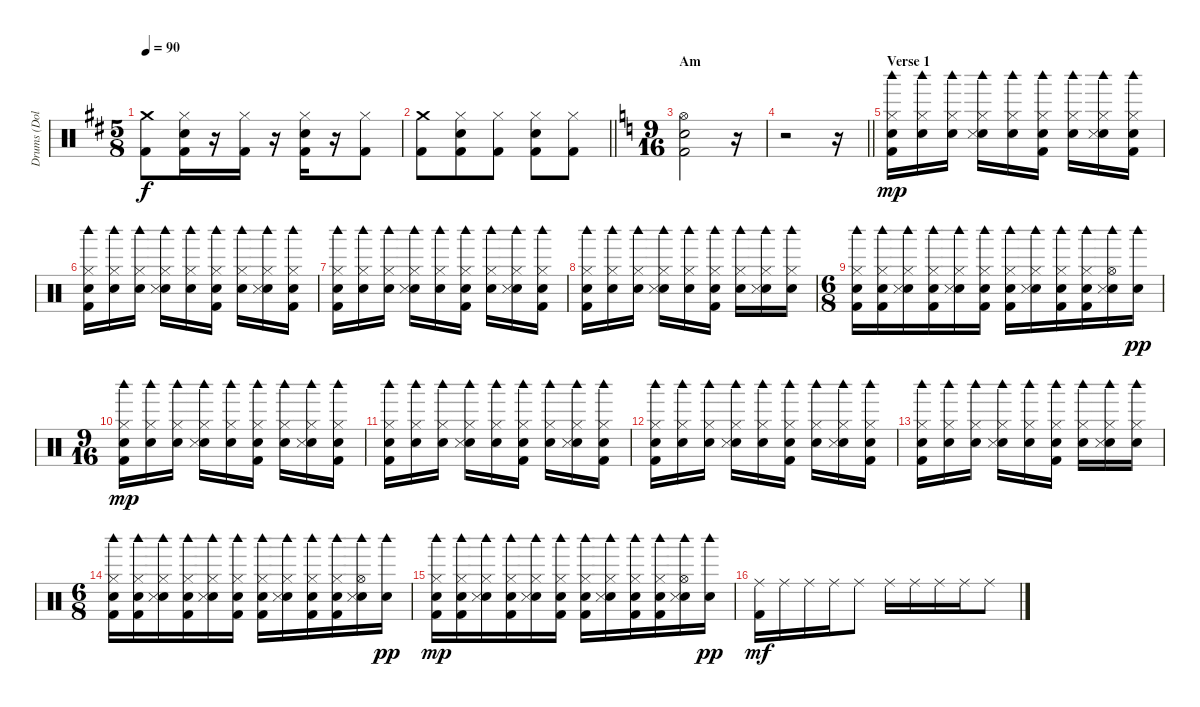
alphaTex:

\track ("Drums (Dolmayan)" "Drums (Dol") {instrument percussion}
\staff {score}
\articulation defaults
\ts (5 8)
\tempo 90
\clef neutral
\ks bminor
("Crash medium (hit)" "Kick (hit) 2").8{dy f} ("Hi-Hat (closed)" "Electric Snare (hit)" "Kick (hit) 2").16 r.16 ("Hi-Hat (closed)" "Kick (hit) 2").16 r.16 ("Hi-Hat (closed)" "Electric Snare (hit)" "Kick (hit) 2").16 r.16 ("Hi-Hat (closed)" "Kick (hit) 2").8 |
\barLineRight lightlight
("Crash medium (hit)" "Kick (hit) 2").8 ("Hi-Hat (closed)" "Electric Snare (hit)" "Kick (hit) 2").8 ("Hi-Hat (closed)" "Kick (hit) 2").8 ("Hi-Hat (closed)" "Electric Snare (hit)" "Kick (hit) 2").8 ("Hi-Hat (closed)" "Kick (hit) 2").8 |
\ts (9 16)
\section ("" "Am")
\ks aminor
("Hi-Hat (open)" "Electric Snare (hit)" "Kick (hit) 2").2 r.16 |
\barLineRight lightlight
r.2 r.16 |
\section ("" "Verse 1")
("Woodblock high (hit)" "Hand Clap (hit)" "Hi-Hat (closed)" "Kick (hit) 2").16{dy mp} ("Woodblock high (hit)" "Hand Clap (hit)" "Hi-Hat (closed)").16 ("Woodblock high (hit)" "Hand Clap (hit)" "Hi-Hat (closed)").16 ("Woodblock high (hit)" "Hand Clap (hit)" "Hi-Hat (closed)" "Snare (side stick) 3").16 ("Woodblock high (hit)" "Hand Clap (hit)" "Hi-Hat (closed)").16 ("Woodblock high (hit)" "Hand Clap (hit)" "Hi-Hat (closed)" "Kick (hit) 2").16 ("Woodblock high (hit)" "Hand Clap (hit)" "Hi-Hat (closed)").16 ("Woodblock high (hit)" "Hand Clap (hit)" "Hi-Hat (closed)" "Snare (side stick) 3").16 ("Woodblock high (hit)" "Hand Clap (hit)" "Hi-Hat (closed)" "Kick (hit) 2").16 |
("Woodblock high (hit)" "Hand Clap (hit)" "Hi-Hat (closed)" "Kick (hit) 2").16 ("Woodblock high (hit)" "Hand Clap (hit)" "Hi-Hat (closed)").16 ("Woodblock high (hit)" "Hand Clap (hit)" "Hi-Hat (closed)").16 ("Woodblock high (hit)" "Hand Clap (hit)" "Hi-Hat (closed)" "Snare (side stick) 3").16 ("Woodblock high (hit)" "Hand Clap (hit)" "Hi-Hat (closed)").16 ("Woodblock high (hit)" "Hand Clap (hit)" "Hi-Hat (closed)" "Kick (hit) 2").16 ("Woodblock high (hit)" "Hand Clap (hit)" "Hi-Hat (closed)").16 ("Woodblock high (hit)" "Hand Clap (hit)" "Hi-Hat (closed)" "Snare (side stick) 3").16 ("Woodblock high (hit)" "Hand Clap (hit)" "Hi-Hat (closed)" "Kick (hit) 2").16 |
("Woodblock high (hit)" "Hand Clap (hit)" "Hi-Hat (closed)" "Kick (hit) 2").16 ("Woodblock high (hit)" "Hand Clap (hit)" "Hi-Hat (closed)").16 ("Woodblock high (hit)" "Hand Clap (hit)" "Hi-Hat (closed)").16 ("Woodblock high (hit)" "Hand Clap (hit)" "Hi-Hat (closed)" "Snare (side stick) 3").16 ("Woodblock high (hit)" "Hand Clap (hit)" "Hi-Hat (closed)").16 ("Woodblock high (hit)" "Hand Clap (hit)" "Hi-Hat (closed)" "Kick (hit) 2").16 ("Woodblock high (hit)" "Hand Clap (hit)" "Hi-Hat (closed)").16 ("Woodblock high (hit)" "Hand Clap (hit)" "Hi-Hat (closed)" "Snare (side stick) 3").16 ("Woodblock high (hit)" "Hand Clap (hit)" "Hi-Hat (closed)" "Kick (hit) 2").16 |
("Woodblock high (hit)" "Hand Clap (hit)" "Hi-Hat (closed)" "Kick (hit) 2").16 ("Woodblock high (hit)" "Hand Clap (hit)" "Hi-Hat (closed)").16 ("Woodblock high (hit)" "Hand Clap (hit)" "Hi-Hat (closed)").16 ("Woodblock high (hit)" "Hand Clap (hit)" "Hi-Hat (closed)" "Snare (side stick) 3").16 ("Woodblock high (hit)" "Hand Clap (hit)" "Hi-Hat (closed)").16 ("Woodblock high (hit)" "Hand Clap (hit)" "Hi-Hat (closed)" "Kick (hit) 2").16 ("Woodblock high (hit)" "Hand Clap (hit)" "Hi-Hat (closed)").16 ("Woodblock high (hit)" "Hand Clap (hit)" "Hi-Hat (closed)" "Snare (side stick) 3").16 ("Woodblock high (hit)" "Hand Clap (hit)" "Hi-Hat (closed)").16 |
\ts (6 8)
("Woodblock high (hit)" "Hand Clap (hit)" "Hi-Hat (closed)" "Kick (hit) 2").16 ("Woodblock high (hit)" "Hand Clap (hit)" "Hi-Hat (closed)" "Kick (hit) 2").16 ("Woodblock high (hit)" "Hand Clap (hit)" "Hi-Hat (closed)" "Snare (side stick) 3").16 ("Woodblock high (hit)" "Hand Clap (hit)" "Hi-Hat (closed)" "Kick (hit) 2").16 ("Woodblock high (hit)" "Hand Clap (hit)" "Hi-Hat (closed)" "Snare (side stick) 3").16 ("Woodblock high (hit)" "Hand Clap (hit)" "Hi-Hat (closed)" "Kick (hit) 2").16 ("Woodblock high (hit)" "Hand Clap (hit)" "Hi-Hat (closed)" "Kick (hit) 2").16 ("Woodblock high (hit)" "Hand Clap (hit)" "Hi-Hat (closed)" "Snare (side stick) 3").16 ("Woodblock high (hit)" "Hand Clap (hit)" "Hi-Hat (closed)" "Kick (hit) 2").16 ("Woodblock high (hit)" "Hand Clap (hit)" "Hi-Hat (closed)" "Kick (hit) 2").16 ("Woodblock high (hit)" "Hand Clap (hit)" "Hi-Hat (open)" "Snare (side stick) 3").16 ("Woodblock high (hit)" "Hand Clap (hit)").16{dy pp} |
\ts (9 16)
("Woodblock high (hit)" "Hand Clap (hit)" "Hi-Hat (closed)" "Kick (hit) 2").16{dy mp} ("Woodblock high (hit)" "Hand Clap (hit)" "Hi-Hat (closed)").16 ("Woodblock high (hit)" "Hand Clap (hit)" "Hi-Hat (closed)").16 ("Woodblock high (hit)" "Hand Clap (hit)" "Hi-Hat (closed)" "Snare (side stick) 3").16 ("Woodblock high (hit)" "Hand Clap (hit)" "Hi-Hat (closed)").16 ("Woodblock high (hit)" "Hand Clap (hit)" "Hi-Hat (closed)" "Kick (hit) 2").16 ("Woodblock high (hit)" "Hand Clap (hit)" "Hi-Hat (closed)").16 ("Woodblock high (hit)" "Hand Clap (hit)" "Hi-Hat (closed)" "Snare (side stick) 3").16 ("Woodblock high (hit)" "Hand Clap (hit)" "Hi-Hat (closed)" "Kick (hit) 2").16 |
("Woodblock high (hit)" "Hand Clap (hit)" "Hi-Hat (closed)" "Kick (hit) 2").16 ("Woodblock high (hit)" "Hand Clap (hit)" "Hi-Hat (closed)").16 ("Woodblock high (hit)" "Hand Clap (hit)" "Hi-Hat (closed)").16 ("Woodblock high (hit)" "Hand Clap (hit)" "Hi-Hat (closed)" "Snare (side stick) 3").16 ("Woodblock high (hit)" "Hand Clap (hit)" "Hi-Hat (closed)").16 ("Woodblock high (hit)" "Hand Clap (hit)" "Hi-Hat (closed)" "Kick (hit) 2").16 ("Woodblock high (hit)" "Hand Clap (hit)" "Hi-Hat (closed)").16 ("Woodblock high (hit)" "Hand Clap (hit)" "Hi-Hat (closed)" "Snare (side stick) 3").16 ("Woodblock high (hit)" "Hand Clap (hit)" "Hi-Hat (closed)" "Kick (hit) 2").16 |
("Woodblock high (hit)" "Hand Clap (hit)" "Hi-Hat (closed)" "Kick (hit) 2").16 ("Woodblock high (hit)" "Hand Clap (hit)" "Hi-Hat (closed)").16 ("Woodblock high (hit)" "Hand Clap (hit)" "Hi-Hat (closed)").16 ("Woodblock high (hit)" "Hand Clap (hit)" "Hi-Hat (closed)" "Snare (side stick) 3").16 ("Woodblock high (hit)" "Hand Clap (hit)" "Hi-Hat (closed)").16 ("Woodblock high (hit)" "Hand Clap (hit)" "Hi-Hat (closed)" "Kick (hit) 2").16 ("Woodblock high (hit)" "Hand Clap (hit)" "Hi-Hat (closed)").16 ("Woodblock high (hit)" "Hand Clap (hit)" "Hi-Hat (closed)" "Snare (side stick) 3").16 ("Woodblock high (hit)" "Hand Clap (hit)" "Hi-Hat (closed)" "Kick (hit) 2").16 |
("Woodblock high (hit)" "Hand Clap (hit)" "Hi-Hat (closed)" "Kick (hit) 2").16 ("Woodblock high (hit)" "Hand Clap (hit)" "Hi-Hat (closed)").16 ("Woodblock high (hit)" "Hand Clap (hit)" "Hi-Hat (closed)").16 ("Woodblock high (hit)" "Hand Clap (hit)" "Hi-Hat (closed)" "Snare (side stick) 3").16 ("Woodblock high (hit)" "Hand Clap (hit)" "Hi-Hat (closed)").16 ("Woodblock high (hit)" "Hand Clap (hit)" "Hi-Hat (closed)" "Kick (hit) 2").16 ("Woodblock high (hit)" "Hand Clap (hit)" "Hi-Hat (closed)").16 ("Woodblock high (hit)" "Hand Clap (hit)" "Hi-Hat (closed)" "Snare (side stick) 3").16 ("Woodblock high (hit)" "Hand Clap (hit)" "Hi-Hat (closed)").16 |
\ts (6 8)
("Woodblock high (hit)" "Hand Clap (hit)" "Hi-Hat (closed)" "Kick (hit) 2").16 ("Woodblock high (hit)" "Hand Clap (hit)" "Hi-Hat (closed)" "Kick (hit) 2").16 ("Woodblock high (hit)" "Hand Clap (hit)" "Hi-Hat (closed)" "Snare (side stick) 3").16 ("Woodblock high (hit)" "Hand Clap (hit)" "Hi-Hat (closed)" "Kick (hit) 2").16 ("Woodblock high (hit)" "Hand Clap (hit)" "Hi-Hat (closed)" "Snare (side stick) 3").16 ("Woodblock high (hit)" "Hand Clap (hit)" "Hi-Hat (closed)" "Kick (hit) 2").16 ("Woodblock high (hit)" "Hand Clap (hit)" "Hi-Hat (closed)" "Kick (hit) 2").16 ("Woodblock high (hit)" "Hand Clap (hit)" "Hi-Hat (closed)" "Snare (side stick) 3").16 ("Woodblock high (hit)" "Hand Clap (hit)" "Hi-Hat (closed)" "Kick (hit) 2").16 ("Woodblock high (hit)" "Hand Clap (hit)" "Hi-Hat (closed)" "Kick (hit) 2").16 ("Woodblock high (hit)" "Hand Clap (hit)" "Hi-Hat (open)" "Snare (side stick) 3").16 ("Woodblock high (hit)" "Hand Clap (hit)").16{dy pp} |
("Woodblock high (hit)" "Hand Clap (hit)" "Hi-Hat (closed)" "Kick (hit) 2").16{dy mp} ("Woodblock high (hit)" "Hand Clap (hit)" "Hi-Hat (closed)" "Kick (hit) 2").16 ("Woodblock high (hit)" "Hand Clap (hit)" "Hi-Hat (closed)" "Snare (side stick) 3").16 ("Woodblock high (hit)" "Hand Clap (hit)" "Hi-Hat (closed)" "Kick (hit) 2").16 ("Woodblock high (hit)" "Hand Clap (hit)" "Hi-Hat (closed)" "Snare (side stick) 3").16 ("Woodblock high (hit)" "Hand Clap (hit)" "Hi-Hat (closed)" "Kick (hit) 2").16 ("Woodblock high (hit)" "Hand Clap (hit)" "Hi-Hat (closed)" "Kick (hit) 2").16 ("Woodblock high (hit)" "Hand Clap (hit)" "Hi-Hat (closed)" "Snare (side stick) 3").16 ("Woodblock high (hit)" "Hand Clap (hit)" "Hi-Hat (closed)" "Kick (hit) 2").16 ("Woodblock high (hit)" "Hand Clap (hit)" "Hi-Hat (closed)" "Kick (hit) 2").16 ("Woodblock high (hit)" "Hand Clap (hit)" "Hi-Hat (open)" "Snare (side stick) 3").16 ("Woodblock high (hit)" "Hand Clap (hit)").16{dy pp} |
("Ride (middle)" "Kick (hit) 2").16{dy mf} "Ride (middle)".16 "Ride (middle)".16 "Ride (middle)".16 "Ride (middle)".8 "Ride (middle)".16 "Ride (middle)".16 "Ride (middle)".16 "Ride (middle)".16 "Ride (middle)".8
